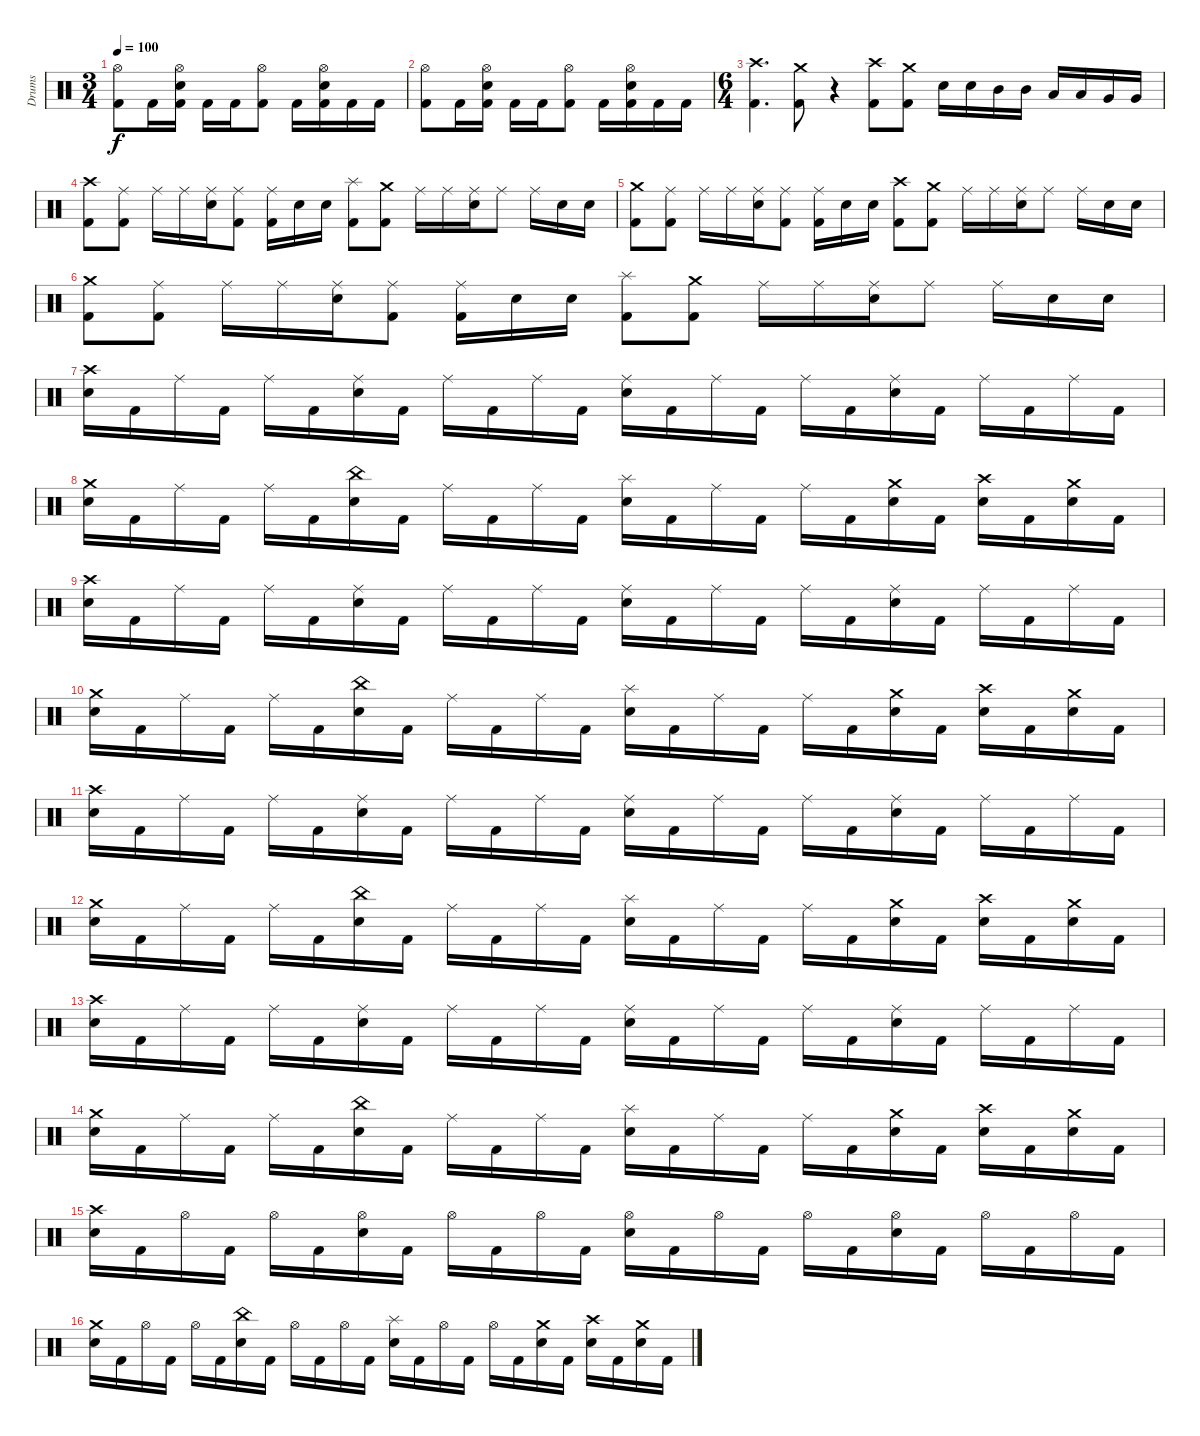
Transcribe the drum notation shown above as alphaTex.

\track ("Drums" "Drums") {instrument percussion}
\staff {score}
\articulation defaults
\ts (3 4)
\tempo 100
\clef neutral
\ks c
("Hi-Hat (open)" "Kick (hit) 2").8{dy f} "Kick (hit) 2".16 ("Hi-Hat (open)" "Electric Snare (hit)" "Kick (hit) 2").16 "Kick (hit) 2".16 "Kick (hit) 2".16 ("Hi-Hat (open)" "Kick (hit) 2").8 "Kick (hit) 2".16 ("Hi-Hat (open)" "Electric Snare (hit)" "Kick (hit) 2").16 "Kick (hit) 2".16 "Kick (hit) 2".16 |
("Hi-Hat (open)" "Kick (hit) 2").8 "Kick (hit) 2".16 ("Hi-Hat (open)" "Electric Snare (hit)" "Kick (hit) 2").16 "Kick (hit) 2".16 "Kick (hit) 2".16 ("Hi-Hat (open)" "Kick (hit) 2").8 "Kick (hit) 2".16 ("Hi-Hat (open)" "Electric Snare (hit)" "Kick (hit) 2").16 "Kick (hit) 2".16 "Kick (hit) 2".16 |
\ts (6 4)
("Crash high (hit)" "Kick (hit) 2").4{d} ("Crash medium (hit)" "Kick (hit) 2").8 r.4{volume 0} ("Crash high (hit)" "Kick (hit) 2").8{volume 12} ("Crash medium (hit)" "Kick (hit) 2").8 "Electric Snare (hit)".16 "Electric Snare (hit)".16 "Mid Tom (hit)".16 "Mid Tom (hit)".16 "Low Tom (hit)".16 "Low Tom (hit)".16 "Very Low Tom (hit)".16 "Very Low Tom (hit)".16 |
("Crash high (hit)" "Kick (hit) 2").8 ("Ride (middle)" "Kick (hit) 2").8 "Ride (middle)".16 "Ride (middle)".16 ("Ride (middle)" "Electric Snare (hit)").16 ("Ride (middle)" "Kick (hit) 2").8 ("Ride (middle)" "Kick (hit) 2").16 "Electric Snare (hit)".16 "Electric Snare (hit)".16 ("Splash (hit)" "Kick (hit) 2").8 ("Crash medium (hit)" "Kick (hit) 2").8 "Ride (middle)".16 "Ride (middle)".16 ("Ride (middle)" "Electric Snare (hit)").16 "Ride (middle)".8 "Ride (middle)".16 "Electric Snare (hit)".16 "Electric Snare (hit)".16 |
("Crash medium (hit)" "Kick (hit) 2").8 ("Ride (middle)" "Kick (hit) 2").8 "Ride (middle)".16 "Ride (middle)".16 ("Ride (middle)" "Electric Snare (hit)").16 ("Ride (middle)" "Kick (hit) 2").8 ("Ride (middle)" "Kick (hit) 2").16 "Electric Snare (hit)".16 "Electric Snare (hit)".16 ("Crash high (hit)" "Kick (hit) 2").8 ("Crash medium (hit)" "Kick (hit) 2").8 "Ride (middle)".16 "Ride (middle)".16 ("Ride (middle)" "Electric Snare (hit)").16 "Ride (middle)".8 "Ride (middle)".16 "Electric Snare (hit)".16 "Electric Snare (hit)".16 |
("Crash medium (hit)" "Kick (hit) 2").8 ("Ride (middle)" "Kick (hit) 2").8 "Ride (middle)".16 "Ride (middle)".16 ("Ride (middle)" "Electric Snare (hit)").16 ("Ride (middle)" "Kick (hit) 2").8 ("Ride (middle)" "Kick (hit) 2").16 "Electric Snare (hit)".16 "Electric Snare (hit)".16 ("Splash (hit)" "Kick (hit) 2").8 ("Crash medium (hit)" "Kick (hit) 2").8 "Ride (middle)".16 "Ride (middle)".16 ("Ride (middle)" "Electric Snare (hit)").16 "Ride (middle)".8 "Ride (middle)".16 "Electric Snare (hit)".16 "Electric Snare (hit)".16 |
("Crash high (hit)" "Electric Snare (hit)").16 "Kick (hit) 2".16 "Ride (middle)".16 "Kick (hit) 2".16 "Ride (middle)".16 "Kick (hit) 2".16 ("Ride (middle)" "Electric Snare (hit)").16 "Kick (hit) 2".16 "Ride (middle)".16 "Kick (hit) 2".16 "Ride (middle)".16 "Kick (hit) 2".16 ("Ride (middle)" "Electric Snare (hit)").16 "Kick (hit) 2".16 "Ride (middle)".16 "Kick (hit) 2".16 "Ride (middle)".16 "Kick (hit) 2".16 ("Ride (middle)" "Electric Snare (hit)").16 "Kick (hit) 2".16 "Ride (middle)".16 "Kick (hit) 2".16 "Ride (middle)".16 "Kick (hit) 2".16 |
("Crash medium (hit)" "Electric Snare (hit)").16 "Kick (hit) 2".16 "Ride (middle)".16 "Kick (hit) 2".16 "Ride (middle)".16 "Kick (hit) 2".16 ("China (hit)" "Electric Snare (hit)").16 "Kick (hit) 2".16 "Ride (middle)".16 "Kick (hit) 2".16 "Ride (middle)".16 "Kick (hit) 2".16 ("Splash (hit)" "Electric Snare (hit)").16 "Kick (hit) 2".16 "Ride (middle)".16 "Kick (hit) 2".16 "Ride (middle)".16 "Kick (hit) 2".16 ("Crash medium (hit)" "Electric Snare (hit)").16 "Kick (hit) 2".16 ("Crash high (hit)" "Electric Snare (hit)").16 "Kick (hit) 2".16 ("Crash medium (hit)" "Electric Snare (hit)").16 "Kick (hit) 2".16 |
("Crash high (hit)" "Electric Snare (hit)").16 "Kick (hit) 2".16 "Ride (middle)".16 "Kick (hit) 2".16 "Ride (middle)".16 "Kick (hit) 2".16 ("Ride (middle)" "Electric Snare (hit)").16 "Kick (hit) 2".16 "Ride (middle)".16 "Kick (hit) 2".16 "Ride (middle)".16 "Kick (hit) 2".16 ("Ride (middle)" "Electric Snare (hit)").16 "Kick (hit) 2".16 "Ride (middle)".16 "Kick (hit) 2".16 "Ride (middle)".16 "Kick (hit) 2".16 ("Ride (middle)" "Electric Snare (hit)").16 "Kick (hit) 2".16 "Ride (middle)".16 "Kick (hit) 2".16 "Ride (middle)".16 "Kick (hit) 2".16 |
("Crash medium (hit)" "Electric Snare (hit)").16 "Kick (hit) 2".16 "Ride (middle)".16 "Kick (hit) 2".16 "Ride (middle)".16 "Kick (hit) 2".16 ("China (hit)" "Electric Snare (hit)").16 "Kick (hit) 2".16 "Ride (middle)".16 "Kick (hit) 2".16 "Ride (middle)".16 "Kick (hit) 2".16 ("Splash (hit)" "Electric Snare (hit)").16 "Kick (hit) 2".16 "Ride (middle)".16 "Kick (hit) 2".16 "Ride (middle)".16 "Kick (hit) 2".16 ("Crash medium (hit)" "Electric Snare (hit)").16 "Kick (hit) 2".16 ("Crash high (hit)" "Electric Snare (hit)").16 "Kick (hit) 2".16 ("Crash medium (hit)" "Electric Snare (hit)").16 "Kick (hit) 2".16 |
("Crash high (hit)" "Electric Snare (hit)").16 "Kick (hit) 2".16 "Ride (middle)".16 "Kick (hit) 2".16 "Ride (middle)".16 "Kick (hit) 2".16 ("Ride (middle)" "Electric Snare (hit)").16 "Kick (hit) 2".16 "Ride (middle)".16 "Kick (hit) 2".16 "Ride (middle)".16 "Kick (hit) 2".16 ("Ride (middle)" "Electric Snare (hit)").16 "Kick (hit) 2".16 "Ride (middle)".16 "Kick (hit) 2".16 "Ride (middle)".16 "Kick (hit) 2".16 ("Ride (middle)" "Electric Snare (hit)").16 "Kick (hit) 2".16 "Ride (middle)".16 "Kick (hit) 2".16 "Ride (middle)".16 "Kick (hit) 2".16 |
("Crash medium (hit)" "Electric Snare (hit)").16 "Kick (hit) 2".16 "Ride (middle)".16 "Kick (hit) 2".16 "Ride (middle)".16 "Kick (hit) 2".16 ("China (hit)" "Electric Snare (hit)").16 "Kick (hit) 2".16 "Ride (middle)".16 "Kick (hit) 2".16 "Ride (middle)".16 "Kick (hit) 2".16 ("Splash (hit)" "Electric Snare (hit)").16 "Kick (hit) 2".16 "Ride (middle)".16 "Kick (hit) 2".16 "Ride (middle)".16 "Kick (hit) 2".16 ("Crash medium (hit)" "Electric Snare (hit)").16 "Kick (hit) 2".16 ("Crash high (hit)" "Electric Snare (hit)").16 "Kick (hit) 2".16 ("Crash medium (hit)" "Electric Snare (hit)").16 "Kick (hit) 2".16 |
("Crash high (hit)" "Electric Snare (hit)").16 "Kick (hit) 2".16 "Ride (middle)".16 "Kick (hit) 2".16 "Ride (middle)".16 "Kick (hit) 2".16 ("Ride (middle)" "Electric Snare (hit)").16 "Kick (hit) 2".16 "Ride (middle)".16 "Kick (hit) 2".16 "Ride (middle)".16 "Kick (hit) 2".16 ("Ride (middle)" "Electric Snare (hit)").16 "Kick (hit) 2".16 "Ride (middle)".16 "Kick (hit) 2".16 "Ride (middle)".16 "Kick (hit) 2".16 ("Ride (middle)" "Electric Snare (hit)").16 "Kick (hit) 2".16 "Ride (middle)".16 "Kick (hit) 2".16 "Ride (middle)".16 "Kick (hit) 2".16 |
("Crash medium (hit)" "Electric Snare (hit)").16 "Kick (hit) 2".16 "Ride (middle)".16 "Kick (hit) 2".16 "Ride (middle)".16 "Kick (hit) 2".16 ("China (hit)" "Electric Snare (hit)").16 "Kick (hit) 2".16 "Ride (middle)".16 "Kick (hit) 2".16 "Ride (middle)".16 "Kick (hit) 2".16 ("Splash (hit)" "Electric Snare (hit)").16 "Kick (hit) 2".16 "Ride (middle)".16 "Kick (hit) 2".16 "Ride (middle)".16 "Kick (hit) 2".16 ("Crash medium (hit)" "Electric Snare (hit)").16 "Kick (hit) 2".16 ("Crash high (hit)" "Electric Snare (hit)").16 "Kick (hit) 2".16 ("Crash medium (hit)" "Electric Snare (hit)").16 "Kick (hit) 2".16 |
("Crash high (hit)" "Electric Snare (hit)").16 "Kick (hit) 2".16 "Hi-Hat (open)".16 "Kick (hit) 2".16 "Hi-Hat (open)".16 "Kick (hit) 2".16 ("Hi-Hat (open)" "Electric Snare (hit)").16 "Kick (hit) 2".16 "Hi-Hat (open)".16 "Kick (hit) 2".16 "Hi-Hat (open)".16 "Kick (hit) 2".16 ("Hi-Hat (open)" "Electric Snare (hit)").16 "Kick (hit) 2".16 "Hi-Hat (open)".16 "Kick (hit) 2".16 "Hi-Hat (open)".16 "Kick (hit) 2".16 ("Hi-Hat (open)" "Electric Snare (hit)").16 "Kick (hit) 2".16 "Hi-Hat (open)".16 "Kick (hit) 2".16 "Hi-Hat (open)".16 "Kick (hit) 2".16 |
("Crash medium (hit)" "Electric Snare (hit)").16 "Kick (hit) 2".16 "Hi-Hat (open)".16 "Kick (hit) 2".16 "Hi-Hat (open)".16 "Kick (hit) 2".16 ("China (hit)" "Electric Snare (hit)").16 "Kick (hit) 2".16 "Hi-Hat (open)".16 "Kick (hit) 2".16 "Hi-Hat (open)".16 "Kick (hit) 2".16 ("Splash (hit)" "Electric Snare (hit)").16 "Kick (hit) 2".16 "Hi-Hat (open)".16 "Kick (hit) 2".16 "Hi-Hat (open)".16 "Kick (hit) 2".16 ("Crash medium (hit)" "Electric Snare (hit)").16 "Kick (hit) 2".16 ("Crash high (hit)" "Electric Snare (hit)").16 "Kick (hit) 2".16 ("Crash medium (hit)" "Electric Snare (hit)").16 "Kick (hit) 2".16
